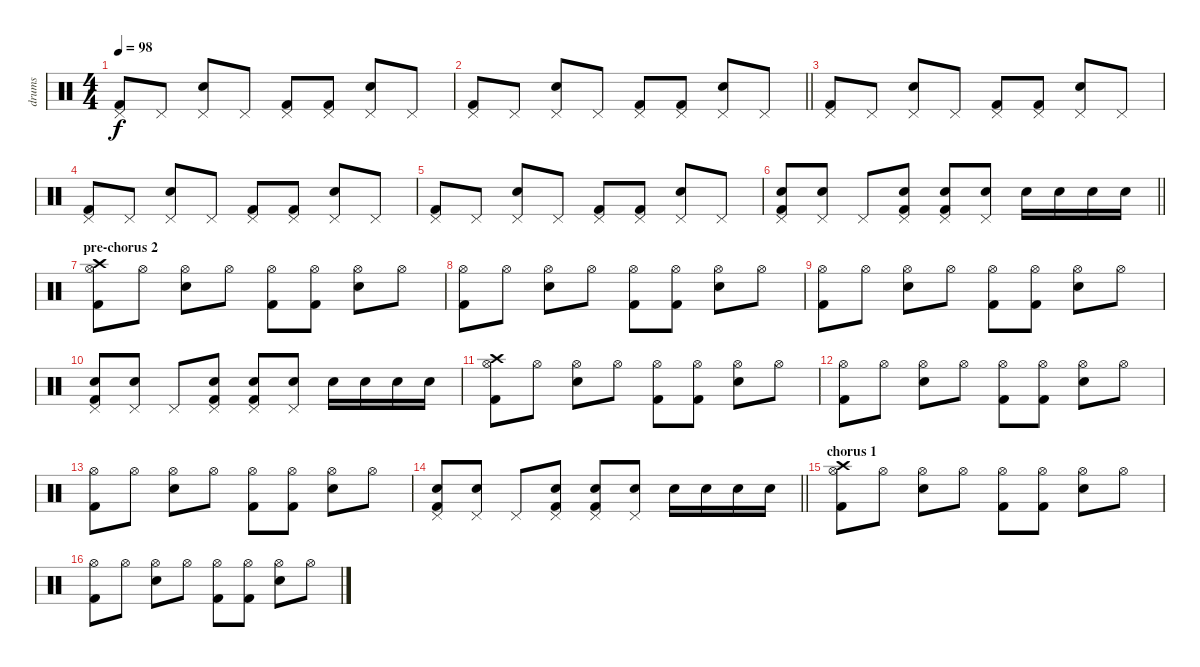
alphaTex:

\track ("drums" "drums") {instrument percussion}
\staff {score}
\articulation defaults
\ts (4 4)
\tempo 98
\clef neutral
\ks c
("Kick (hit) 2" "Pedal Hi-Hat (hit)").8{dy f} "Pedal Hi-Hat (hit)".8 ("Electric Snare (hit)" "Pedal Hi-Hat (hit)").8 "Pedal Hi-Hat (hit)".8 ("Kick (hit) 2" "Pedal Hi-Hat (hit)").8 ("Kick (hit) 2" "Pedal Hi-Hat (hit)").8 ("Electric Snare (hit)" "Pedal Hi-Hat (hit)").8 "Pedal Hi-Hat (hit)".8 |
\barLineRight lightlight
("Kick (hit) 2" "Pedal Hi-Hat (hit)").8 "Pedal Hi-Hat (hit)".8 ("Electric Snare (hit)" "Pedal Hi-Hat (hit)").8 "Pedal Hi-Hat (hit)".8 ("Kick (hit) 2" "Pedal Hi-Hat (hit)").8 ("Kick (hit) 2" "Pedal Hi-Hat (hit)").8 ("Electric Snare (hit)" "Pedal Hi-Hat (hit)").8 "Pedal Hi-Hat (hit)".8 |
("Kick (hit) 2" "Pedal Hi-Hat (hit)").8 "Pedal Hi-Hat (hit)".8 ("Electric Snare (hit)" "Pedal Hi-Hat (hit)").8 "Pedal Hi-Hat (hit)".8 ("Kick (hit) 2" "Pedal Hi-Hat (hit)").8 ("Kick (hit) 2" "Pedal Hi-Hat (hit)").8 ("Electric Snare (hit)" "Pedal Hi-Hat (hit)").8 "Pedal Hi-Hat (hit)".8 |
("Kick (hit) 2" "Pedal Hi-Hat (hit)").8 "Pedal Hi-Hat (hit)".8 ("Electric Snare (hit)" "Pedal Hi-Hat (hit)").8 "Pedal Hi-Hat (hit)".8 ("Kick (hit) 2" "Pedal Hi-Hat (hit)").8 ("Kick (hit) 2" "Pedal Hi-Hat (hit)").8 ("Electric Snare (hit)" "Pedal Hi-Hat (hit)").8 "Pedal Hi-Hat (hit)".8 |
("Kick (hit) 2" "Pedal Hi-Hat (hit)").8 "Pedal Hi-Hat (hit)".8 ("Electric Snare (hit)" "Pedal Hi-Hat (hit)").8 "Pedal Hi-Hat (hit)".8 ("Kick (hit) 2" "Pedal Hi-Hat (hit)").8 ("Kick (hit) 2" "Pedal Hi-Hat (hit)").8 ("Electric Snare (hit)" "Pedal Hi-Hat (hit)").8 "Pedal Hi-Hat (hit)".8 |
\barLineRight lightlight
("Kick (hit) 2" "Electric Snare (hit)" "Pedal Hi-Hat (hit)").8 ("Electric Snare (hit)" "Pedal Hi-Hat (hit)").8 "Pedal Hi-Hat (hit)".8 ("Kick (hit) 2" "Electric Snare (hit)" "Pedal Hi-Hat (hit)").8 ("Kick (hit) 2" "Electric Snare (hit)" "Pedal Hi-Hat (hit)").8 ("Electric Snare (hit)" "Pedal Hi-Hat (hit)").8 "Electric Snare (hit)".16 "Electric Snare (hit)".16 "Electric Snare (hit)".16 "Electric Snare (hit)".16 |
\section ("" "pre-chorus 2")
("Kick (hit) 2" "Hi-Hat (open)" "Crash high (hit)").8 "Hi-Hat (open)".8 ("Electric Snare (hit)" "Hi-Hat (open)").8 "Hi-Hat (open)".8 ("Kick (hit) 2" "Hi-Hat (open)").8 ("Kick (hit) 2" "Hi-Hat (open)").8 ("Electric Snare (hit)" "Hi-Hat (open)").8 "Hi-Hat (open)".8 |
("Kick (hit) 2" "Hi-Hat (open)").8 "Hi-Hat (open)".8 ("Electric Snare (hit)" "Hi-Hat (open)").8 "Hi-Hat (open)".8 ("Kick (hit) 2" "Hi-Hat (open)").8 ("Kick (hit) 2" "Hi-Hat (open)").8 ("Electric Snare (hit)" "Hi-Hat (open)").8 "Hi-Hat (open)".8 |
("Kick (hit) 2" "Hi-Hat (open)").8 "Hi-Hat (open)".8 ("Electric Snare (hit)" "Hi-Hat (open)").8 "Hi-Hat (open)".8 ("Kick (hit) 2" "Hi-Hat (open)").8 ("Kick (hit) 2" "Hi-Hat (open)").8 ("Electric Snare (hit)" "Hi-Hat (open)").8 "Hi-Hat (open)".8 |
("Kick (hit) 2" "Electric Snare (hit)" "Pedal Hi-Hat (hit)").8 ("Electric Snare (hit)" "Pedal Hi-Hat (hit)").8 "Pedal Hi-Hat (hit)".8 ("Kick (hit) 2" "Electric Snare (hit)" "Pedal Hi-Hat (hit)").8 ("Kick (hit) 2" "Electric Snare (hit)" "Pedal Hi-Hat (hit)").8 ("Electric Snare (hit)" "Pedal Hi-Hat (hit)").8 "Electric Snare (hit)".16 "Electric Snare (hit)".16 "Electric Snare (hit)".16 "Electric Snare (hit)".16 |
("Kick (hit) 2" "Hi-Hat (open)" "Crash high (hit)").8 "Hi-Hat (open)".8 ("Electric Snare (hit)" "Hi-Hat (open)").8 "Hi-Hat (open)".8 ("Kick (hit) 2" "Hi-Hat (open)").8 ("Kick (hit) 2" "Hi-Hat (open)").8 ("Electric Snare (hit)" "Hi-Hat (open)").8 "Hi-Hat (open)".8 |
("Kick (hit) 2" "Hi-Hat (open)").8 "Hi-Hat (open)".8 ("Electric Snare (hit)" "Hi-Hat (open)").8 "Hi-Hat (open)".8 ("Kick (hit) 2" "Hi-Hat (open)").8 ("Kick (hit) 2" "Hi-Hat (open)").8 ("Electric Snare (hit)" "Hi-Hat (open)").8 "Hi-Hat (open)".8 |
("Kick (hit) 2" "Hi-Hat (open)").8 "Hi-Hat (open)".8 ("Electric Snare (hit)" "Hi-Hat (open)").8 "Hi-Hat (open)".8 ("Kick (hit) 2" "Hi-Hat (open)").8 ("Kick (hit) 2" "Hi-Hat (open)").8 ("Electric Snare (hit)" "Hi-Hat (open)").8 "Hi-Hat (open)".8 |
\barLineRight lightlight
("Kick (hit) 2" "Electric Snare (hit)" "Pedal Hi-Hat (hit)").8 ("Electric Snare (hit)" "Pedal Hi-Hat (hit)").8 "Pedal Hi-Hat (hit)".8 ("Kick (hit) 2" "Electric Snare (hit)" "Pedal Hi-Hat (hit)").8 ("Kick (hit) 2" "Electric Snare (hit)" "Pedal Hi-Hat (hit)").8 ("Electric Snare (hit)" "Pedal Hi-Hat (hit)").8 "Electric Snare (hit)".16 "Electric Snare (hit)".16 "Electric Snare (hit)".16 "Electric Snare (hit)".16 |
\section ("" "chorus 1")
("Kick (hit) 2" "Hi-Hat (open)" "Crash high (hit)").8 "Hi-Hat (open)".8 ("Electric Snare (hit)" "Hi-Hat (open)").8 "Hi-Hat (open)".8 ("Kick (hit) 2" "Hi-Hat (open)").8 ("Kick (hit) 2" "Hi-Hat (open)").8 ("Electric Snare (hit)" "Hi-Hat (open)").8 "Hi-Hat (open)".8 |
("Kick (hit) 2" "Hi-Hat (open)").8 "Hi-Hat (open)".8 ("Electric Snare (hit)" "Hi-Hat (open)").8 "Hi-Hat (open)".8 ("Kick (hit) 2" "Hi-Hat (open)").8 ("Kick (hit) 2" "Hi-Hat (open)").8 ("Electric Snare (hit)" "Hi-Hat (open)").8 "Hi-Hat (open)".8
